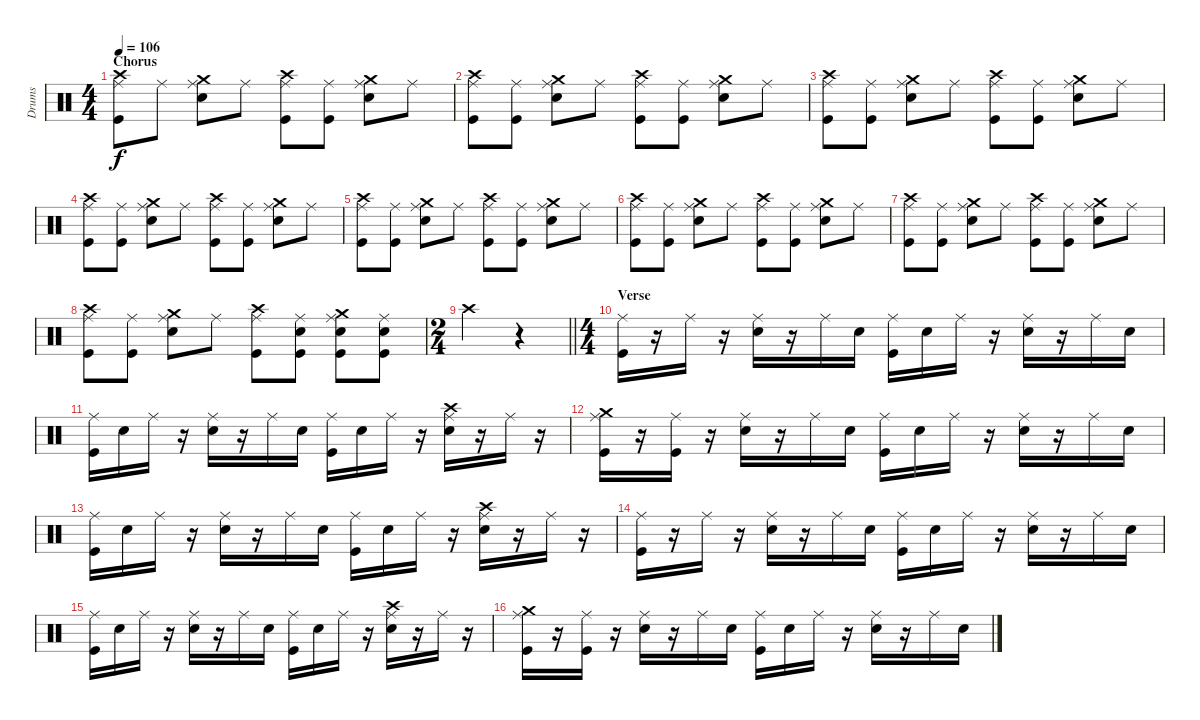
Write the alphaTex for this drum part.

\track ("Drums" "Drums") {instrument percussion}
\staff {score}
\articulation defaults
\ts (4 4)
\section ("" "Chorus")
\tempo 106
\clef neutral
\ks c
("Crash high (hit)" "Ride (middle)" "Kick (hit)").8{dy f} "Ride (middle)".8 ("Crash medium (hit)" "Ride (middle)" "Electric Snare (hit)").8 "Ride (middle)".8 ("Crash high (hit)" "Ride (middle)" "Kick (hit)").8 ("Ride (middle)" "Kick (hit)").8 ("Crash medium (hit)" "Ride (middle)" "Electric Snare (hit)").8 "Ride (middle)".8 |
("Crash high (hit)" "Ride (middle)" "Kick (hit)").8 ("Ride (middle)" "Kick (hit)").8 ("Crash medium (hit)" "Ride (middle)" "Electric Snare (hit)").8 "Ride (middle)".8 ("Crash high (hit)" "Ride (middle)" "Kick (hit)").8 ("Ride (middle)" "Kick (hit)").8 ("Crash medium (hit)" "Ride (middle)" "Electric Snare (hit)").8 "Ride (middle)".8 |
("Crash high (hit)" "Ride (middle)" "Kick (hit)").8 ("Ride (middle)" "Kick (hit)").8 ("Crash medium (hit)" "Ride (middle)" "Electric Snare (hit)").8 "Ride (middle)".8 ("Crash high (hit)" "Ride (middle)" "Kick (hit)").8 ("Ride (middle)" "Kick (hit)").8 ("Crash medium (hit)" "Ride (middle)" "Electric Snare (hit)").8 "Ride (middle)".8 |
("Crash high (hit)" "Ride (middle)" "Kick (hit)").8 ("Ride (middle)" "Kick (hit)").8 ("Crash medium (hit)" "Ride (middle)" "Electric Snare (hit)").8 "Ride (middle)".8 ("Crash high (hit)" "Ride (middle)" "Kick (hit)").8 ("Ride (middle)" "Kick (hit)").8 ("Crash medium (hit)" "Ride (middle)" "Electric Snare (hit)").8 "Ride (middle)".8 |
("Crash high (hit)" "Ride (middle)" "Kick (hit)").8 ("Ride (middle)" "Kick (hit)").8 ("Crash medium (hit)" "Ride (middle)" "Electric Snare (hit)").8 "Ride (middle)".8 ("Crash high (hit)" "Ride (middle)" "Kick (hit)").8 ("Ride (middle)" "Kick (hit)").8 ("Crash medium (hit)" "Ride (middle)" "Electric Snare (hit)").8 "Ride (middle)".8 |
("Crash high (hit)" "Ride (middle)" "Kick (hit)").8 ("Ride (middle)" "Kick (hit)").8 ("Crash medium (hit)" "Ride (middle)" "Electric Snare (hit)").8 "Ride (middle)".8 ("Crash high (hit)" "Ride (middle)" "Kick (hit)").8 ("Ride (middle)" "Kick (hit)").8 ("Crash medium (hit)" "Ride (middle)" "Electric Snare (hit)").8 "Ride (middle)".8 |
("Crash high (hit)" "Ride (middle)" "Kick (hit)").8 ("Ride (middle)" "Kick (hit)").8 ("Crash medium (hit)" "Ride (middle)" "Electric Snare (hit)").8 "Ride (middle)".8 ("Crash high (hit)" "Ride (middle)" "Kick (hit)").8 ("Ride (middle)" "Kick (hit)").8 ("Crash medium (hit)" "Ride (middle)" "Electric Snare (hit)").8 "Ride (middle)".8 |
("Crash high (hit)" "Ride (middle)" "Kick (hit)").8 ("Ride (middle)" "Kick (hit)").8 ("Crash medium (hit)" "Ride (middle)" "Electric Snare (hit)").8 "Ride (middle)".8 ("Crash high (hit)" "Ride (middle)" "Kick (hit)").8 ("Ride (middle)" "Electric Snare (hit)" "Kick (hit)").8 ("Crash medium (hit)" "Ride (middle)" "Electric Snare (hit)" "Kick (hit)").8 ("Ride (middle)" "Electric Snare (hit)" "Kick (hit)").8 |
\ts (2 4)
\barLineRight lightlight "Crash high (hit)".4
r.4 |
\ts (4 4)
\section ("" "Verse")
("Ride (middle)" "Kick (hit)").16 r.16 "Ride (middle)".16 r.16 ("Ride (middle)" "Electric Snare (hit)").16 r.16 "Ride (middle)".16 "Electric Snare (hit)".16 ("Ride (middle)" "Kick (hit)").16 "Electric Snare (hit)".16 "Ride (middle)".16 r.16 ("Ride (middle)" "Electric Snare (hit)").16 r.16 "Ride (middle)".16 "Electric Snare (hit)".16 |
("Ride (middle)" "Kick (hit)").16 "Electric Snare (hit)".16 "Ride (middle)".16 r.16 ("Ride (middle)" "Electric Snare (hit)").16 r.16 "Ride (middle)".16 "Electric Snare (hit)".16 ("Ride (middle)" "Kick (hit)").16 "Electric Snare (hit)".16 "Ride (middle)".16 r.16 ("Crash high (hit)" "Ride (middle)" "Electric Snare (hit)").16 r.16 "Ride (middle)".16 r.16 |
("Crash medium (hit)" "Ride (middle)" "Kick (hit)").16 r.16 ("Ride (middle)" "Kick (hit)").16 r.16 ("Ride (middle)" "Electric Snare (hit)").16 r.16 "Ride (middle)".16 "Electric Snare (hit)".16 ("Ride (middle)" "Kick (hit)").16 "Electric Snare (hit)".16 "Ride (middle)".16 r.16 ("Ride (middle)" "Electric Snare (hit)").16 r.16 "Ride (middle)".16 "Electric Snare (hit)".16 |
("Ride (middle)" "Kick (hit)").16 "Electric Snare (hit)".16 "Ride (middle)".16 r.16 ("Ride (middle)" "Electric Snare (hit)").16 r.16 "Ride (middle)".16 "Electric Snare (hit)".16 ("Ride (middle)" "Kick (hit)").16 "Electric Snare (hit)".16 "Ride (middle)".16 r.16 ("Crash high (hit)" "Ride (middle)" "Electric Snare (hit)").16 r.16 "Ride (middle)".16 r.16 |
("Ride (middle)" "Kick (hit)").16 r.16 "Ride (middle)".16 r.16 ("Ride (middle)" "Electric Snare (hit)").16 r.16 "Ride (middle)".16 "Electric Snare (hit)".16 ("Ride (middle)" "Kick (hit)").16 "Electric Snare (hit)".16 "Ride (middle)".16 r.16 ("Ride (middle)" "Electric Snare (hit)").16 r.16 "Ride (middle)".16 "Electric Snare (hit)".16 |
("Ride (middle)" "Kick (hit)").16 "Electric Snare (hit)".16 "Ride (middle)".16 r.16 ("Ride (middle)" "Electric Snare (hit)").16 r.16 "Ride (middle)".16 "Electric Snare (hit)".16 ("Ride (middle)" "Kick (hit)").16 "Electric Snare (hit)".16 "Ride (middle)".16 r.16 ("Crash high (hit)" "Ride (middle)" "Electric Snare (hit)").16 r.16 "Ride (middle)".16 r.16 |
("Crash medium (hit)" "Ride (middle)" "Kick (hit)").16 r.16 ("Ride (middle)" "Kick (hit)").16 r.16 ("Ride (middle)" "Electric Snare (hit)").16 r.16 "Ride (middle)".16 "Electric Snare (hit)".16 ("Ride (middle)" "Kick (hit)").16 "Electric Snare (hit)".16 "Ride (middle)".16 r.16 ("Ride (middle)" "Electric Snare (hit)").16 r.16 "Ride (middle)".16 "Electric Snare (hit)".16
